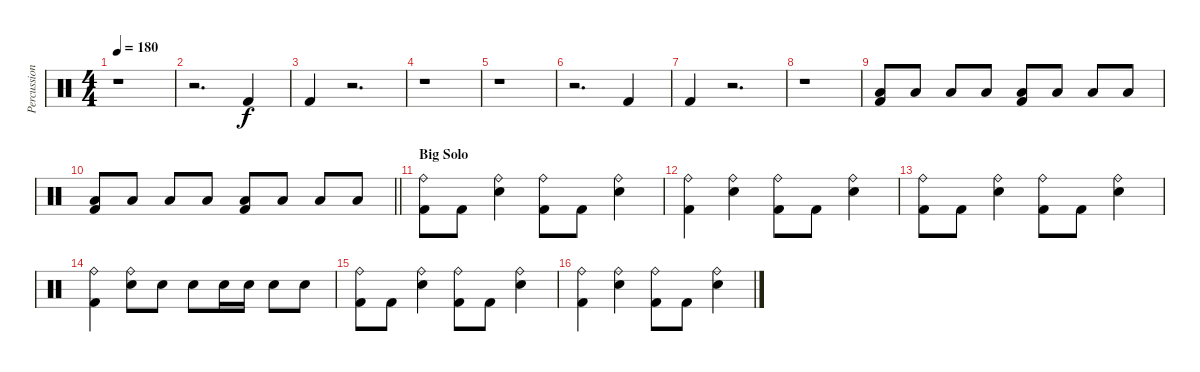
\track ("Percussion" "Percussion") {instrument percussion}
\staff {score}
\articulation defaults
\ts (4 4)
\tempo 180
\clef neutral
\ks c
r.1{dy f} |
r.2{d} "Kick (hit) 2".4 |
"Kick (hit) 2".4 r.2{d} |
r.1 |
r.1 |
r.2{d} "Kick (hit) 2".4 |
"Kick (hit) 2".4 r.2{d} |
r.1 |
("Low Floor Tom (hit)" "Kick (hit) 2").8 "Low Floor Tom (hit)".8 "Low Floor Tom (hit)".8 "Low Floor Tom (hit)".8 ("Low Floor Tom (hit)" "Kick (hit) 2").8 "Low Floor Tom (hit)".8 "Low Floor Tom (hit)".8 "Low Floor Tom (hit)".8 |
\barLineRight lightlight
("Low Floor Tom (hit)" "Kick (hit) 2").8 "Low Floor Tom (hit)".8 "Low Floor Tom (hit)".8 "Low Floor Tom (hit)".8 ("Low Floor Tom (hit)" "Kick (hit) 2").8 "Low Floor Tom (hit)".8 "Low Floor Tom (hit)".8 "Low Floor Tom (hit)".8 |
\section ("" "Big Solo")
("Ride (bell)" "Kick (hit) 2").8 "Kick (hit) 2".8 ("Ride (bell)" "Snare (hit) 2").4 ("Ride (bell)" "Kick (hit) 2").8 "Kick (hit) 2".8 ("Ride (bell)" "Snare (hit) 2").4 |
("Ride (bell)" "Kick (hit) 2").4 ("Ride (bell)" "Snare (hit) 2").4 ("Ride (bell)" "Kick (hit) 2").8 "Kick (hit) 2".8 ("Ride (bell)" "Snare (hit) 2").4 |
("Ride (bell)" "Kick (hit) 2").8 "Kick (hit) 2".8 ("Ride (bell)" "Snare (hit) 2").4 ("Ride (bell)" "Kick (hit) 2").8 "Kick (hit) 2".8 ("Ride (bell)" "Snare (hit) 2").4 |
("Ride (bell)" "Kick (hit) 2").4 ("Ride (bell)" "Snare (hit) 2").8 "Snare (hit) 2".8 "Snare (hit) 2".8 "Snare (hit) 2".16 "Snare (hit) 2".16 "Snare (hit) 2".8 "Snare (hit) 2".8 |
("Ride (bell)" "Kick (hit) 2").8 "Kick (hit) 2".8 ("Ride (bell)" "Snare (hit) 2").4 ("Ride (bell)" "Kick (hit) 2").8 "Kick (hit) 2".8 ("Ride (bell)" "Snare (hit) 2").4 |
("Ride (bell)" "Kick (hit) 2").4 ("Ride (bell)" "Snare (hit) 2").4 ("Ride (bell)" "Kick (hit) 2").8 "Kick (hit) 2".8 ("Ride (bell)" "Snare (hit) 2").4
